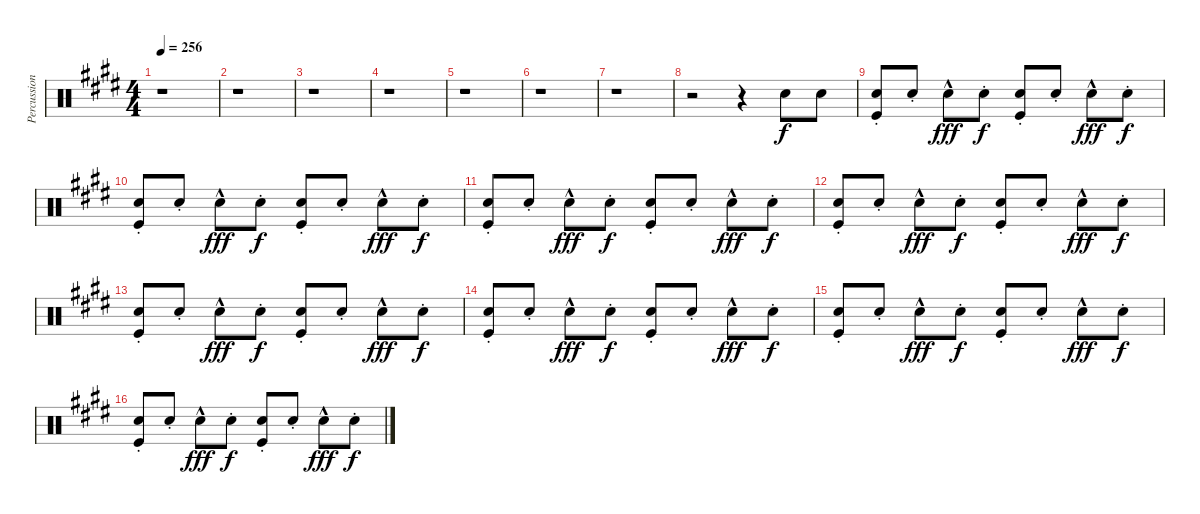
\track ("Percussion" "Percussion") {instrument percussion}
\staff {score}
\articulation defaults
\ts (4 4)
\tempo 256
\clef neutral
\ks e
r.1{dy f} |
r.1 |
r.1 |
r.1 |
r.1 |
r.1 |
r.1 |
r.2 r.4 "Snare (hit) 2".8 "Snare (hit) 2".8 |
("Snare (hit) 2"{st} "Kick (hit)").8 "Snare (hit) 2"{st}.8 "Snare (hit) 2"{hac}.8{dy fff} "Snare (hit) 2"{st}.8{dy f} ("Snare (hit) 2"{st} "Kick (hit)").8 "Snare (hit) 2"{st}.8 "Snare (hit) 2"{hac}.8{dy fff} "Snare (hit) 2"{st}.8{dy f} |
("Snare (hit) 2"{st} "Kick (hit)").8 "Snare (hit) 2"{st}.8 "Snare (hit) 2"{hac}.8{dy fff} "Snare (hit) 2"{st}.8{dy f} ("Snare (hit) 2"{st} "Kick (hit)").8 "Snare (hit) 2"{st}.8 "Snare (hit) 2"{hac}.8{dy fff} "Snare (hit) 2"{st}.8{dy f} |
("Snare (hit) 2"{st} "Kick (hit)").8 "Snare (hit) 2"{st}.8 "Snare (hit) 2"{hac}.8{dy fff} "Snare (hit) 2"{st}.8{dy f} ("Snare (hit) 2"{st} "Kick (hit)").8 "Snare (hit) 2"{st}.8 "Snare (hit) 2"{hac}.8{dy fff} "Snare (hit) 2"{st}.8{dy f} |
("Snare (hit) 2"{st} "Kick (hit)").8 "Snare (hit) 2"{st}.8 "Snare (hit) 2"{hac}.8{dy fff} "Snare (hit) 2"{st}.8{dy f} ("Snare (hit) 2"{st} "Kick (hit)").8 "Snare (hit) 2"{st}.8 "Snare (hit) 2"{hac}.8{dy fff} "Snare (hit) 2"{st}.8{dy f} |
("Snare (hit) 2"{st} "Kick (hit)").8 "Snare (hit) 2"{st}.8 "Snare (hit) 2"{hac}.8{dy fff} "Snare (hit) 2"{st}.8{dy f} ("Snare (hit) 2"{st} "Kick (hit)").8 "Snare (hit) 2"{st}.8 "Snare (hit) 2"{hac}.8{dy fff} "Snare (hit) 2"{st}.8{dy f} |
("Snare (hit) 2"{st} "Kick (hit)").8 "Snare (hit) 2"{st}.8 "Snare (hit) 2"{hac}.8{dy fff} "Snare (hit) 2"{st}.8{dy f} ("Snare (hit) 2"{st} "Kick (hit)").8 "Snare (hit) 2"{st}.8 "Snare (hit) 2"{hac}.8{dy fff} "Snare (hit) 2"{st}.8{dy f} |
("Snare (hit) 2"{st} "Kick (hit)").8 "Snare (hit) 2"{st}.8 "Snare (hit) 2"{hac}.8{dy fff} "Snare (hit) 2"{st}.8{dy f} ("Snare (hit) 2"{st} "Kick (hit)").8 "Snare (hit) 2"{st}.8 "Snare (hit) 2"{hac}.8{dy fff} "Snare (hit) 2"{st}.8{dy f} |
("Snare (hit) 2"{st} "Kick (hit)").8 "Snare (hit) 2"{st}.8 "Snare (hit) 2"{hac}.8{dy fff} "Snare (hit) 2"{st}.8{dy f} ("Snare (hit) 2"{st} "Kick (hit)").8 "Snare (hit) 2"{st}.8 "Snare (hit) 2"{hac}.8{dy fff} "Snare (hit) 2"{st}.8{dy f}
